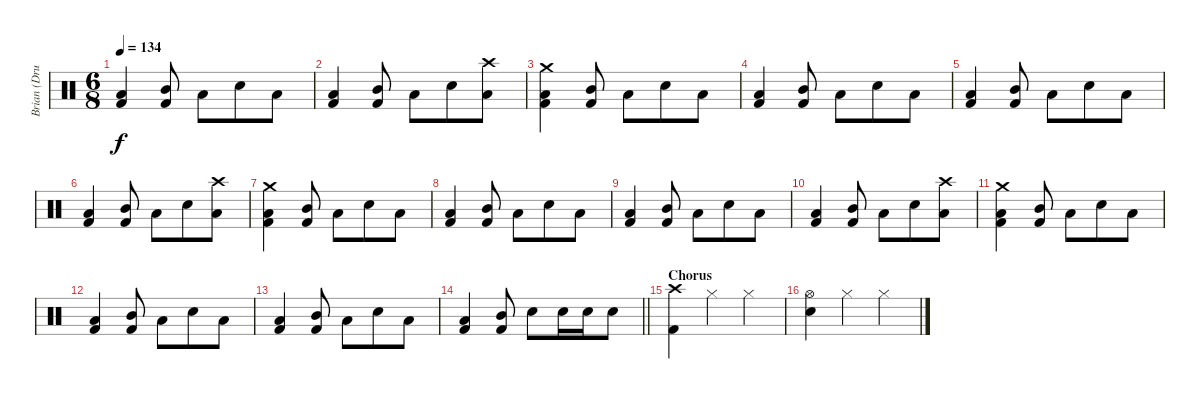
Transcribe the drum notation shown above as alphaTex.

\track ("Brian (Drums)" "Brian (Dru") {instrument percussion}
\staff {score}
\articulation defaults
\ts (6 8)
\tempo 134
\clef neutral
\ks c
("Low Tom (hit)" "Kick (hit) 2").4{dy f} ("Mid Tom (hit)" "Kick (hit) 2").8 "Low Tom (hit)".8 "Electric Snare (hit)".8 "Low Tom (hit)".8 |
("Low Tom (hit)" "Kick (hit) 2").4 ("Mid Tom (hit)" "Kick (hit) 2").8 "Low Tom (hit)".8 "Electric Snare (hit)".8 ("Crash high (hit)" "Low Tom (hit)").8 |
("Crash medium (hit)" "Low Tom (hit)" "Kick (hit) 2").4 ("Mid Tom (hit)" "Kick (hit) 2").8 "Low Tom (hit)".8 "Electric Snare (hit)".8 "Low Tom (hit)".8 |
("Low Tom (hit)" "Kick (hit) 2").4 ("Mid Tom (hit)" "Kick (hit) 2").8 "Low Tom (hit)".8 "Electric Snare (hit)".8 "Low Tom (hit)".8 |
("Low Tom (hit)" "Kick (hit) 2").4 ("Mid Tom (hit)" "Kick (hit) 2").8 "Low Tom (hit)".8 "Electric Snare (hit)".8 "Low Tom (hit)".8 |
("Low Tom (hit)" "Kick (hit) 2").4 ("Mid Tom (hit)" "Kick (hit) 2").8 "Low Tom (hit)".8 "Electric Snare (hit)".8 ("Crash high (hit)" "Low Tom (hit)").8 |
("Crash medium (hit)" "Low Tom (hit)" "Kick (hit) 2").4 ("Mid Tom (hit)" "Kick (hit) 2").8 "Low Tom (hit)".8 "Electric Snare (hit)".8 "Low Tom (hit)".8 |
("Low Tom (hit)" "Kick (hit) 2").4 ("Mid Tom (hit)" "Kick (hit) 2").8 "Low Tom (hit)".8 "Electric Snare (hit)".8 "Low Tom (hit)".8 |
("Low Tom (hit)" "Kick (hit) 2").4 ("Mid Tom (hit)" "Kick (hit) 2").8 "Low Tom (hit)".8 "Electric Snare (hit)".8 "Low Tom (hit)".8 |
("Low Tom (hit)" "Kick (hit) 2").4 ("Mid Tom (hit)" "Kick (hit) 2").8 "Low Tom (hit)".8 "Electric Snare (hit)".8 ("Crash high (hit)" "Low Tom (hit)").8 |
("Crash medium (hit)" "Low Tom (hit)" "Kick (hit) 2").4 ("Mid Tom (hit)" "Kick (hit) 2").8 "Low Tom (hit)".8 "Electric Snare (hit)".8 "Low Tom (hit)".8 |
("Low Tom (hit)" "Kick (hit) 2").4 ("Mid Tom (hit)" "Kick (hit) 2").8 "Low Tom (hit)".8 "Electric Snare (hit)".8 "Low Tom (hit)".8 |
("Low Tom (hit)" "Kick (hit) 2").4 ("Mid Tom (hit)" "Kick (hit) 2").8 "Low Tom (hit)".8 "Electric Snare (hit)".8 "Low Tom (hit)".8 |
\barLineRight lightlight
("Low Tom (hit)" "Kick (hit) 2").4 ("Mid Tom (hit)" "Kick (hit) 2").8 "Electric Snare (hit)".8 "Electric Snare (hit)".16 "Electric Snare (hit)".16 "Electric Snare (hit)".8 |
\section ("" "Chorus")
("Crash high (hit)" "Kick (hit) 2").4 "Hi-Hat (closed)".4 "Hi-Hat (closed)".4 |
("Hi-Hat (open)" "Electric Snare (hit)").4 "Hi-Hat (closed)".4 "Hi-Hat (closed)".4
